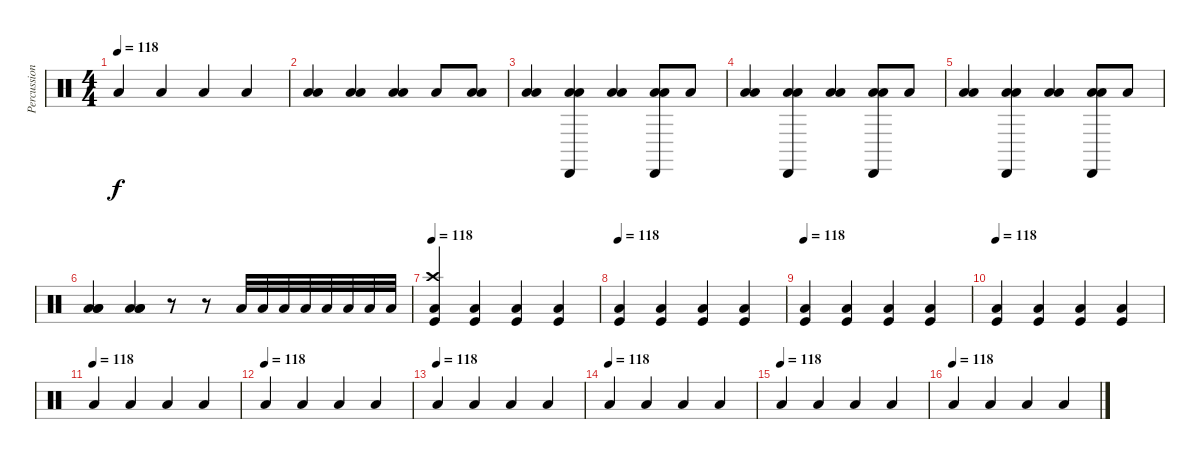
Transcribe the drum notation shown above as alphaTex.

\track ("Percussions" "Percussion") {instrument percussion}
\staff {score}
\articulation defaults
\ts (4 4)
\tempo 118
\clef neutral
\ks c "Low Floor Tom (hit)".4{dy f volume 9} "Low Floor Tom (hit)".4 "Low Floor Tom (hit)".4 "Low Floor Tom (hit)".4
|
("Low Floor Tom (hit)" "Low Floor Tom (hit)").4{volume 11} ("Low Floor Tom (hit)" "Low Floor Tom (hit)").4 ("Low Floor Tom (hit)" "Low Floor Tom (hit)").4 "Low Floor Tom (hit)".8 ("Low Floor Tom (hit)" "Low Floor Tom (hit)").8 |
("Low Floor Tom (hit)" "Low Floor Tom (hit)").4{volume 11} ("Cabasa (hit)" "Low Floor Tom (hit)" "Low Floor Tom (hit)").4 ("Low Floor Tom (hit)" "Low Floor Tom (hit)").4 ("Cabasa (hit)" "Low Floor Tom (hit)" "Low Floor Tom (hit)").8 "Low Floor Tom (hit)".8 |
("Low Floor Tom (hit)" "Low Floor Tom (hit)").4{volume 11} ("Cabasa (hit)" "Low Floor Tom (hit)" "Low Floor Tom (hit)").4 ("Low Floor Tom (hit)" "Low Floor Tom (hit)").4 ("Cabasa (hit)" "Low Floor Tom (hit)" "Low Floor Tom (hit)").8 "Low Floor Tom (hit)".8 |
("Low Floor Tom (hit)" "Low Floor Tom (hit)").4{volume 11} ("Cabasa (hit)" "Low Floor Tom (hit)" "Low Floor Tom (hit)").4 ("Low Floor Tom (hit)" "Low Floor Tom (hit)").4 ("Cabasa (hit)" "Low Floor Tom (hit)" "Low Floor Tom (hit)").8 "Low Floor Tom (hit)".8 |
("Low Floor Tom (hit)" "Low Floor Tom (hit)" "Low Floor Tom (hit)").4 ("Low Floor Tom (hit)" "Low Floor Tom (hit)" "Low Floor Tom (hit)").4 r.8 r.8 "Low Floor Tom (hit)".32{volume 13} "Low Floor Tom (hit)".32 "Low Floor Tom (hit)".32 "Low Floor Tom (hit)".32 "Low Floor Tom (hit)".32 "Low Floor Tom (hit)".32 "Low Floor Tom (hit)".32 "Low Floor Tom (hit)".32 |
\tempo 118
("Crash high (hit)" "Low Floor Tom (hit)" "Kick (hit)").4{volume 13} ("Low Floor Tom (hit)" "Kick (hit)").4{volume 13} ("Low Floor Tom (hit)" "Kick (hit)").4 ("Low Floor Tom (hit)" "Kick (hit)").4 |
\tempo 118
("Kick (hit)" "Low Floor Tom (hit)").4{volume 13} ("Kick (hit)" "Low Floor Tom (hit)").4 ("Kick (hit)" "Low Floor Tom (hit)").4 ("Kick (hit)" "Low Floor Tom (hit)").4 |
\tempo 118
("Kick (hit)" "Low Floor Tom (hit)").4{volume 13} ("Kick (hit)" "Low Floor Tom (hit)").4 ("Kick (hit)" "Low Floor Tom (hit)").4 ("Kick (hit)" "Low Floor Tom (hit)").4 |
\tempo 118
("Kick (hit)" "Low Floor Tom (hit)").4{volume 13} ("Kick (hit)" "Low Floor Tom (hit)").4 ("Kick (hit)" "Low Floor Tom (hit)").4 ("Kick (hit)" "Low Floor Tom (hit)").4 |
\tempo (118)
"Low Floor Tom (hit)".4{volume 13} "Low Floor Tom (hit)".4 "Low Floor Tom (hit)".4 "Low Floor Tom (hit)".4 |
\tempo (118)
"Low Floor Tom (hit)".4{volume 13} "Low Floor Tom (hit)".4 "Low Floor Tom (hit)".4 "Low Floor Tom (hit)".4 |
\tempo (118)
"Low Floor Tom (hit)".4{volume 13} "Low Floor Tom (hit)".4 "Low Floor Tom (hit)".4 "Low Floor Tom (hit)".4 |
\tempo (118)
"Low Floor Tom (hit)".4{volume 13} "Low Floor Tom (hit)".4 "Low Floor Tom (hit)".4 "Low Floor Tom (hit)".4 |
\tempo (118)
"Low Floor Tom (hit)".4{volume 13} "Low Floor Tom (hit)".4 "Low Floor Tom (hit)".4 "Low Floor Tom (hit)".4 |
\tempo (118)
"Low Floor Tom (hit)".4{volume 13} "Low Floor Tom (hit)".4 "Low Floor Tom (hit)".4 "Low Floor Tom (hit)".4
